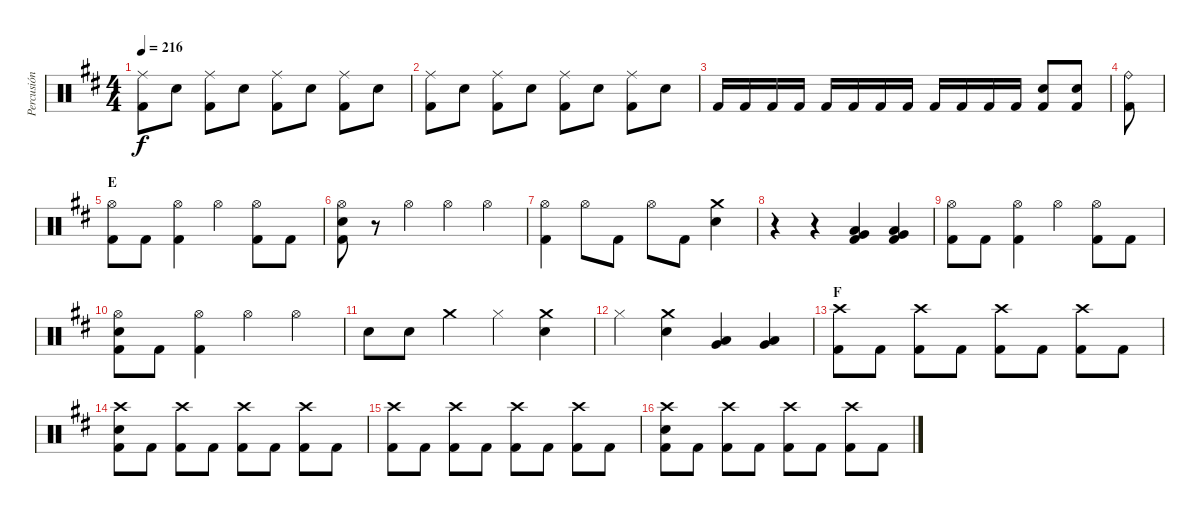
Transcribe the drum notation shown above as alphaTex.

\track ("Percusión" "Percusión") {instrument percussion}
\staff {score}
\articulation defaults
\ts (4 4)
\tempo 216
\clef neutral
\ks d
("Ride (middle)" "Kick (hit) 2").8{dy f} "Electric Snare (hit)".8 ("Ride (middle)" "Kick (hit) 2").8 "Electric Snare (hit)".8 ("Ride (middle)" "Kick (hit) 2").8 "Electric Snare (hit)".8 ("Ride (middle)" "Kick (hit) 2").8 "Electric Snare (hit)".8 |
("Ride (middle)" "Kick (hit) 2").8 "Electric Snare (hit)".8 ("Ride (middle)" "Kick (hit) 2").8 "Electric Snare (hit)".8 ("Ride (middle)" "Kick (hit) 2").8 "Electric Snare (hit)".8 ("Ride (middle)" "Kick (hit) 2").8 "Electric Snare (hit)".8 |
"Kick (hit) 2".16 "Kick (hit) 2".16 "Kick (hit) 2".16 "Kick (hit) 2".16 "Kick (hit) 2".16 "Kick (hit) 2".16 "Kick (hit) 2".16 "Kick (hit) 2".16 "Kick (hit) 2".16 "Kick (hit) 2".16 "Kick (hit) 2".16 "Kick (hit) 2".16 ("Electric Snare (hit)" "Kick (hit) 2").8 ("Electric Snare (hit)" "Kick (hit) 2").8 |
("Ride (bell)" "Kick (hit) 2").8 |
\section ("" "E")
("Hi-Hat (open)" "Kick (hit) 2").8 "Kick (hit) 2".8 ("Hi-Hat (open)" "Kick (hit) 2").4 "Hi-Hat (open)".4 ("Hi-Hat (open)" "Kick (hit) 2").8 "Kick (hit) 2".8 |
("Hi-Hat (open)" "Electric Snare (hit)" "Kick (hit) 2").8 r.8 "Hi-Hat (open)".4 "Hi-Hat (open)".4 "Hi-Hat (open)".4 |
("Hi-Hat (open)" "Kick (hit) 2").4 "Hi-Hat (open)".8 "Kick (hit) 2".8 "Hi-Hat (open)".8 "Kick (hit) 2".8 ("Crash medium (hit)" "Electric Snare (hit)").4 |
r.4 r.4 ("Low Tom (hit)" "Very Low Tom (hit)" "Kick (hit) 2").4 ("Low Tom (hit)" "Very Low Tom (hit)" "Kick (hit) 2").4 |
("Hi-Hat (open)" "Kick (hit) 2").8 "Kick (hit) 2".8 ("Hi-Hat (open)" "Kick (hit) 2").4 "Hi-Hat (open)".4 ("Hi-Hat (open)" "Kick (hit) 2").8 "Kick (hit) 2".8 |
("Hi-Hat (open)" "Electric Snare (hit)" "Kick (hit) 2").8 "Kick (hit) 2".8 ("Hi-Hat (open)" "Kick (hit) 2").4 "Hi-Hat (open)".4 "Hi-Hat (open)".4 |
"Electric Snare (hit)".8 "Electric Snare (hit)".8 "Crash medium (hit)".4 "Hi-Hat (closed)".4 ("Crash medium (hit)" "Electric Snare (hit)").4 |
"Hi-Hat (closed)".4 ("Crash medium (hit)" "Electric Snare (hit)").4 ("Low Tom (hit)" "Very Low Tom (hit)").4 ("Low Tom (hit)" "Very Low Tom (hit)").4 |
\section ("" "F")
("Crash high (hit)" "Kick (hit) 2").8 "Kick (hit) 2".8 ("Crash high (hit)" "Kick (hit) 2").8 "Kick (hit) 2".8 ("Crash high (hit)" "Kick (hit) 2").8 "Kick (hit) 2".8 ("Crash high (hit)" "Kick (hit) 2").8 "Kick (hit) 2".8 |
("Crash high (hit)" "Electric Snare (hit)" "Kick (hit) 2").8 "Kick (hit) 2".8 ("Crash high (hit)" "Kick (hit) 2").8 "Kick (hit) 2".8 ("Crash high (hit)" "Kick (hit) 2").8 "Kick (hit) 2".8 ("Crash high (hit)" "Kick (hit) 2").8 "Kick (hit) 2".8 |
("Crash high (hit)" "Kick (hit) 2").8 "Kick (hit) 2".8 ("Crash high (hit)" "Kick (hit) 2").8 "Kick (hit) 2".8 ("Crash high (hit)" "Kick (hit) 2").8 "Kick (hit) 2".8 ("Crash high (hit)" "Kick (hit) 2").8 "Kick (hit) 2".8 |
("Crash high (hit)" "Electric Snare (hit)" "Kick (hit) 2").8 "Kick (hit) 2".8 ("Crash high (hit)" "Kick (hit) 2").8 "Kick (hit) 2".8 ("Crash high (hit)" "Kick (hit) 2").8 "Kick (hit) 2".8 ("Crash high (hit)" "Kick (hit) 2").8 "Kick (hit) 2".8
